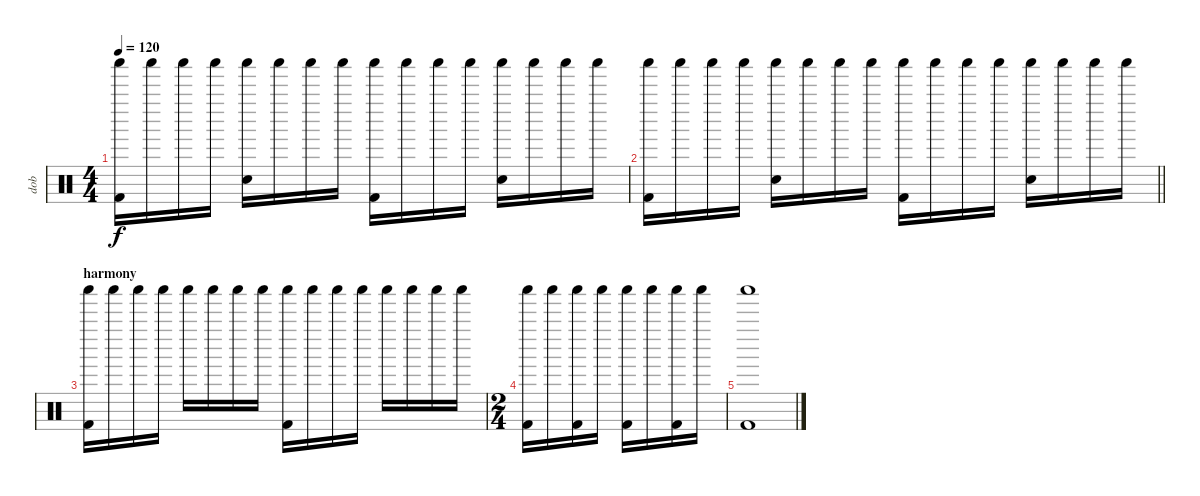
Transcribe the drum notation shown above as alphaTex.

\track ("dob" "dob") {instrument percussion}
\staff {score}
\articulation defaults
\ts (4 4)
\tempo 120
\clef neutral
\ks c
("Kick (hit) 2" "Shaker (hit)").16{dy f} "Shaker (hit)".16 "Shaker (hit)".16 "Shaker (hit)".16 ("Electric Snare (hit)" "Shaker (hit)").16 "Shaker (hit)".16 "Shaker (hit)".16 "Shaker (hit)".16 ("Kick (hit) 2" "Shaker (hit)").16 "Shaker (hit)".16 "Shaker (hit)".16 "Shaker (hit)".16 ("Electric Snare (hit)" "Shaker (hit)").16 "Shaker (hit)".16 "Shaker (hit)".16 "Shaker (hit)".16 |
\barLineRight lightlight
("Kick (hit) 2" "Shaker (hit)").16 "Shaker (hit)".16 "Shaker (hit)".16 "Shaker (hit)".16 ("Electric Snare (hit)" "Shaker (hit)").16 "Shaker (hit)".16 "Shaker (hit)".16 "Shaker (hit)".16 ("Kick (hit) 2" "Shaker (hit)").16 "Shaker (hit)".16 "Shaker (hit)".16 "Shaker (hit)".16 ("Electric Snare (hit)" "Shaker (hit)").16 "Shaker (hit)".16 "Shaker (hit)".16 "Shaker (hit)".16 |
\section ("" "harmony")
("Kick (hit) 2" "Shaker (hit)").16 "Shaker (hit)".16 "Shaker (hit)".16 "Shaker (hit)".16 "Shaker (hit)".16 "Shaker (hit)".16 "Shaker (hit)".16 "Shaker (hit)".16 ("Kick (hit) 2" "Shaker (hit)").16 "Shaker (hit)".16 "Shaker (hit)".16 "Shaker (hit)".16 "Shaker (hit)".16 "Shaker (hit)".16 "Shaker (hit)".16 "Shaker (hit)".16 |
\ts (2 4)
("Kick (hit) 2" "Shaker (hit)").16 "Shaker (hit)".16 ("Kick (hit) 2" "Shaker (hit)").16 "Shaker (hit)".16 ("Kick (hit) 2" "Shaker (hit)").16 "Shaker (hit)".16 ("Kick (hit) 2" "Shaker (hit)").16 "Shaker (hit)".16 |
("Kick (hit) 2" "Shaker (hit)").1
